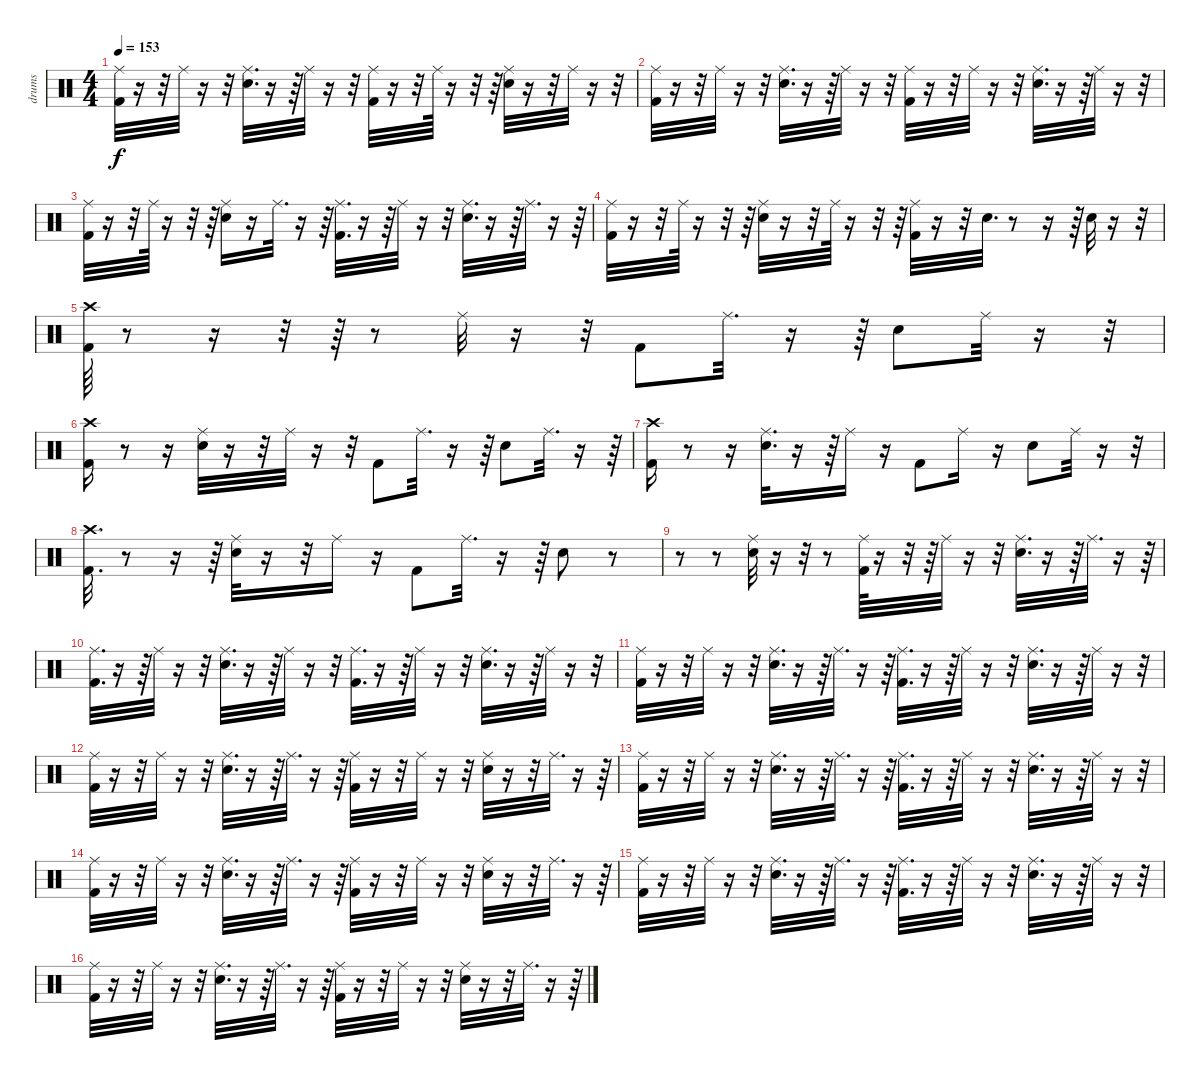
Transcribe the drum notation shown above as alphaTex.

\track ("drums" "drums") {instrument percussion}
\staff {score}
\articulation defaults
\ts (4 4)
\tempo 153
\clef neutral
\ks c
("Ride (middle)" "Kick (hit) 2").32{dy f} r.16 r.32 "Ride (middle)".32 r.16 r.32 ("Ride (middle)" "Snare (hit) 2").32{d} r.16 r.64 "Ride (middle)".32 r.16 r.32 ("Ride (middle)" "Kick (hit) 2").32 r.16 r.32 "Ride (middle)".64 r.16 r.32 r.64 ("Ride (middle)" "Snare (hit) 2").32 r.16 r.32 "Ride (middle)".32 r.16 r.32 |
("Ride (middle)" "Kick (hit) 2").32 r.16 r.32 "Ride (middle)".32 r.16 r.32 ("Ride (middle)" "Snare (hit) 2").32{d} r.16 r.64 "Ride (middle)".32 r.16 r.32 ("Ride (middle)" "Kick (hit) 2").32 r.16 r.32 "Ride (middle)".32 r.16 r.32 ("Ride (middle)" "Snare (hit) 2").32{d} r.16 r.64 "Ride (middle)".32 r.16 r.32 |
("Ride (middle)" "Kick (hit) 2").32 r.16 r.32 "Ride (middle)".64 r.16 r.32 r.64 ("Ride (middle)" "Snare (hit) 2").16 r.16 "Ride (middle)".32{d} r.16 r.64 ("Ride (middle)" "Kick (hit) 2").32{d} r.16 r.64 "Ride (middle)".32 r.16 r.32 ("Ride (middle)" "Snare (hit) 2").32{d} r.16 r.64 "Ride (middle)".32{d} r.16 r.64 |
("Ride (middle)" "Kick (hit) 2").32 r.16 r.32 "Ride (middle)".64 r.16 r.32 r.64 ("Ride (middle)" "Snare (hit) 2").32 r.16 r.32 "Ride (middle)".64 r.16 r.32 r.64 ("Ride (middle)" "Kick (hit) 2").32 r.16 r.32 "Snare (hit) 2".32{d} r.8 r.16 r.64 "Snare (hit) 2".32 r.16 r.32 |
("Crash high (hit)" "Kick (hit) 2").64 r.8 r.16 r.32 r.64 r.8 "Ride (middle)".32 r.16 r.32 "Kick (hit) 2".8 "Ride (middle)".32{d} r.16 r.64 "Snare (hit) 2".8 "Ride (middle)".32 r.16 r.32 |
("Crash high (hit)" "Kick (hit) 2").16 r.8 r.16 ("Ride (middle)" "Snare (hit) 2").32 r.16 r.32 "Ride (middle)".32 r.16 r.32 "Kick (hit) 2".8 "Ride (middle)".32{d} r.16 r.64 "Snare (hit) 2".8 "Ride (middle)".32{d} r.16 r.64 |
("Crash high (hit)" "Kick (hit) 2").16 r.8 r.16 ("Ride (middle)" "Snare (hit) 2").32{d} r.16 r.64 "Ride (middle)".16 r.16 "Kick (hit) 2".8 "Ride (middle)".16 r.16 "Snare (hit) 2".8 "Ride (middle)".32 r.16 r.32 |
("Crash high (hit)" "Kick (hit) 2").32{d} r.8 r.16 r.64 ("Ride (middle)" "Snare (hit) 2").32 r.16 r.32 "Ride (middle)".16 r.16 "Kick (hit) 2".8 "Ride (middle)".32{d} r.16 r.64 "Snare (hit) 2".8 r.8 |
r.8 r.8 ("Ride (middle)" "Snare (hit) 2").32 r.16 r.32 r.8 ("Ride (middle)" "Kick (hit) 2").64 r.16 r.32 r.64 "Ride (middle)".32 r.16 r.32 ("Ride (middle)" "Snare (hit) 2").32{d} r.16 r.64 "Ride (middle)".32{d} r.16 r.64 |
("Ride (middle)" "Kick (hit) 2").32{d} r.16 r.64 "Ride (middle)".32 r.16 r.32 ("Ride (middle)" "Snare (hit) 2").32{d} r.16 r.64 "Ride (middle)".32 r.16 r.32 ("Ride (middle)" "Kick (hit) 2").32{d} r.16 r.64 "Ride (middle)".32 r.16 r.32 ("Ride (middle)" "Snare (hit) 2").32{d} r.16 r.64 "Ride (middle)".32 r.16 r.32 |
("Ride (middle)" "Kick (hit) 2").32 r.16 r.32 "Ride (middle)".32 r.16 r.32 ("Ride (middle)" "Snare (hit) 2").32{d} r.16 r.64 "Ride (middle)".32{d} r.16 r.64 ("Ride (middle)" "Kick (hit) 2").32{d} r.16 r.64 "Ride (middle)".32 r.16 r.32 ("Ride (middle)" "Snare (hit) 2").32{d} r.16 r.64 "Ride (middle)".32 r.16 r.32 |
("Ride (middle)" "Kick (hit) 2").32 r.16 r.32 "Ride (middle)".32 r.16 r.32 ("Ride (middle)" "Snare (hit) 2").32{d} r.16 r.64 "Ride (middle)".32{d} r.16 r.64 ("Ride (middle)" "Kick (hit) 2").32 r.16 r.32 "Ride (middle)".32 r.16 r.32 ("Ride (middle)" "Snare (hit) 2").32 r.16 r.32 "Ride (middle)".32{d} r.16 r.64 |
("Ride (middle)" "Kick (hit) 2").32 r.16 r.32 "Ride (middle)".32 r.16 r.32 ("Ride (middle)" "Snare (hit) 2").32{d} r.16 r.64 "Ride (middle)".32{d} r.16 r.64 ("Ride (middle)" "Kick (hit) 2").32{d} r.16 r.64 "Ride (middle)".32 r.16 r.32 ("Ride (middle)" "Snare (hit) 2").32{d} r.16 r.64 "Ride (middle)".32 r.16 r.32 |
("Ride (middle)" "Kick (hit) 2").32 r.16 r.32 "Ride (middle)".32 r.16 r.32 ("Ride (middle)" "Snare (hit) 2").32{d} r.16 r.64 "Ride (middle)".32{d} r.16 r.64 ("Ride (middle)" "Kick (hit) 2").32 r.16 r.32 "Ride (middle)".32 r.16 r.32 ("Ride (middle)" "Snare (hit) 2").32 r.16 r.32 "Ride (middle)".32{d} r.16 r.64 |
("Ride (middle)" "Kick (hit) 2").32 r.16 r.32 "Ride (middle)".32 r.16 r.32 ("Ride (middle)" "Snare (hit) 2").32{d} r.16 r.64 "Ride (middle)".32{d} r.16 r.64 ("Ride (middle)" "Kick (hit) 2").32{d} r.16 r.64 "Ride (middle)".32 r.16 r.32 ("Ride (middle)" "Snare (hit) 2").32{d} r.16 r.64 "Ride (middle)".32 r.16 r.32 |
("Ride (middle)" "Kick (hit) 2").32 r.16 r.32 "Ride (middle)".32 r.16 r.32 ("Ride (middle)" "Snare (hit) 2").32{d} r.16 r.64 "Ride (middle)".32{d} r.16 r.64 ("Ride (middle)" "Kick (hit) 2").32 r.16 r.32 "Ride (middle)".32 r.16 r.32 ("Ride (middle)" "Snare (hit) 2").32 r.16 r.32 "Ride (middle)".32{d} r.16 r.64
